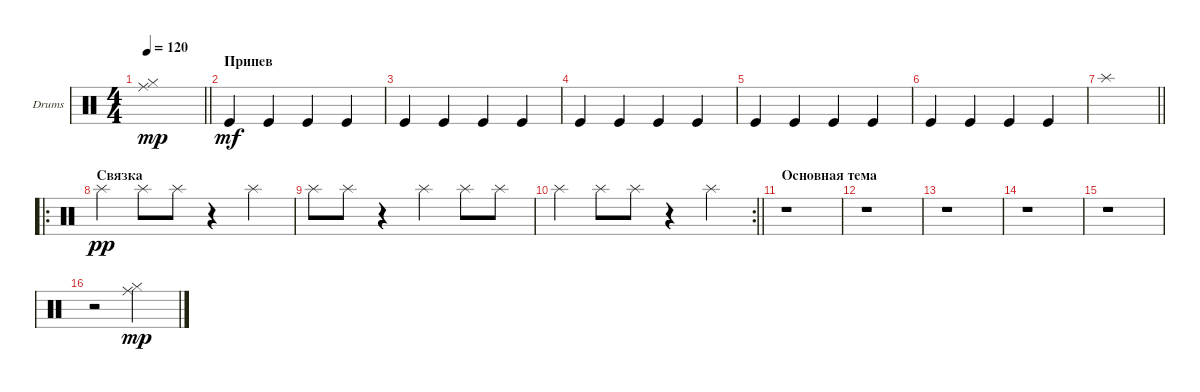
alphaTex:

\bracketExtendMode groupsimilarinstruments
\firstSystemTrackNameOrientation horizontal
\otherSystemsTrackNameOrientation horizontal
\track ("Drumkit" "Drums") {instrument percussion}
\staff {score}
\articulation defaults
\ts (4 4)
\tempo 120
\clef neutral
\barLineRight lightlight
\ks c
("Hi-Hat (closed)" "Ride (middle)").1{dy mp} |
\section ("" "Припев")
"Kick (hit)".4{dy mf} "Kick (hit)".4 "Kick (hit)".4 "Kick (hit)".4 |
"Kick (hit)".4 "Kick (hit)".4 "Kick (hit)".4 "Kick (hit)".4 |
"Kick (hit)".4 "Kick (hit)".4 "Kick (hit)".4 "Kick (hit)".4 |
"Kick (hit)".4 "Kick (hit)".4 "Kick (hit)".4 "Kick (hit)".4 |
"Kick (hit)".4 "Kick (hit)".4 "Kick (hit)".4 "Kick (hit)".4 |
\barLineRight lightlight "Splash (hit)".1
|
\ro
\section ("" "Связка")
"Splash (hit)".4{dy pp} "Splash (hit)".8 "Splash (hit)".8 r.4 "Splash (hit)".4 |
"Splash (hit)".8 "Splash (hit)".8 r.4 "Splash (hit)".4 "Splash (hit)".8 "Splash (hit)".8 |
\rc 2
\barLineRight lightlight "Splash (hit)".4 "Splash (hit)".8 "Splash (hit)".8
r.4 "Splash (hit)".4 |
\section ("" "Основная тема")
r.1 |
r.1 |
r.1 |
r.1 |
r.1 |
r.2 ("Hi-Hat (closed)" "Ride (middle)").2{dy mp}
